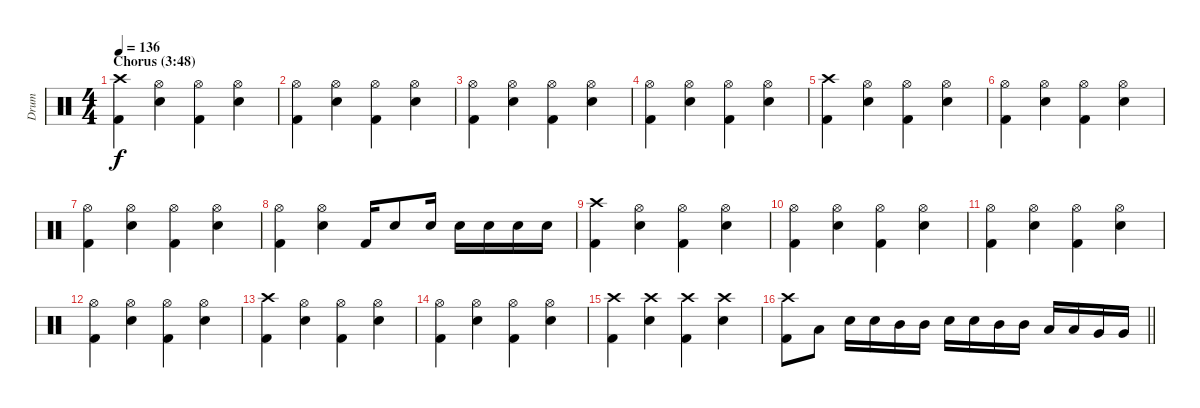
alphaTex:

\track ("Drum" "Drum") {instrument percussion}
\staff {score}
\articulation defaults
\ts (4 4)
\section ("" "Chorus (3:48)")
\tempo 136
\clef neutral
\ks c
("Crash high (hit)" "Kick (hit) 2").4{dy f} ("Hi-Hat (open)" "Snare (hit) 2").4 ("Hi-Hat (open)" "Kick (hit) 2").4 ("Hi-Hat (open)" "Snare (hit) 2").4 |
("Hi-Hat (open)" "Kick (hit) 2").4 ("Hi-Hat (open)" "Snare (hit) 2").4 ("Hi-Hat (open)" "Kick (hit) 2").4 ("Hi-Hat (open)" "Snare (hit) 2").4 |
("Hi-Hat (open)" "Kick (hit) 2").4 ("Hi-Hat (open)" "Snare (hit) 2").4 ("Hi-Hat (open)" "Kick (hit) 2").4 ("Hi-Hat (open)" "Snare (hit) 2").4 |
("Hi-Hat (open)" "Kick (hit) 2").4 ("Hi-Hat (open)" "Snare (hit) 2").4 ("Hi-Hat (open)" "Kick (hit) 2").4 ("Hi-Hat (open)" "Snare (hit) 2").4 |
("Crash high (hit)" "Kick (hit) 2").4 ("Hi-Hat (open)" "Snare (hit) 2").4 ("Hi-Hat (open)" "Kick (hit) 2").4 ("Hi-Hat (open)" "Snare (hit) 2").4 |
("Hi-Hat (open)" "Kick (hit) 2").4 ("Hi-Hat (open)" "Snare (hit) 2").4 ("Hi-Hat (open)" "Kick (hit) 2").4 ("Hi-Hat (open)" "Snare (hit) 2").4 |
("Hi-Hat (open)" "Kick (hit) 2").4 ("Hi-Hat (open)" "Snare (hit) 2").4 ("Hi-Hat (open)" "Kick (hit) 2").4 ("Hi-Hat (open)" "Snare (hit) 2").4 |
("Hi-Hat (open)" "Kick (hit) 2").4 ("Hi-Hat (open)" "Snare (hit) 2").4 "Kick (hit) 2".16 "Snare (hit) 2".8 "Snare (hit) 2".16 "Snare (hit) 2".16 "Snare (hit) 2".16 "Snare (hit) 2".16 "Snare (hit) 2".16 |
("Crash high (hit)" "Kick (hit) 2").4 ("Hi-Hat (open)" "Snare (hit) 2").4 ("Hi-Hat (open)" "Kick (hit) 2").4 ("Hi-Hat (open)" "Snare (hit) 2").4 |
("Hi-Hat (open)" "Kick (hit) 2").4 ("Hi-Hat (open)" "Snare (hit) 2").4 ("Hi-Hat (open)" "Kick (hit) 2").4 ("Hi-Hat (open)" "Snare (hit) 2").4 |
("Hi-Hat (open)" "Kick (hit) 2").4 ("Hi-Hat (open)" "Snare (hit) 2").4 ("Hi-Hat (open)" "Kick (hit) 2").4 ("Hi-Hat (open)" "Snare (hit) 2").4 |
("Hi-Hat (open)" "Kick (hit) 2").4 ("Hi-Hat (open)" "Snare (hit) 2").4 ("Hi-Hat (open)" "Kick (hit) 2").4 ("Hi-Hat (open)" "Snare (hit) 2").4 |
("Crash high (hit)" "Kick (hit) 2").4 ("Hi-Hat (open)" "Snare (hit) 2").4 ("Hi-Hat (open)" "Kick (hit) 2").4 ("Hi-Hat (open)" "Snare (hit) 2").4 |
("Hi-Hat (open)" "Kick (hit) 2").4 ("Hi-Hat (open)" "Snare (hit) 2").4 ("Hi-Hat (open)" "Kick (hit) 2").4 ("Hi-Hat (open)" "Snare (hit) 2").4 |
("Crash high (hit)" "Kick (hit) 2").4 ("Crash high (hit)" "Snare (hit) 2").4 ("Crash high (hit)" "Kick (hit) 2").4 ("Crash high (hit)" "Snare (hit) 2").4 |
\barLineRight lightlight
("Crash high (hit)" "Kick (hit) 2").8 "Low Tom (hit)".8 "Snare (hit) 2".16 "Snare (hit) 2".16 "Mid Tom (hit)".16 "Mid Tom (hit)".16 "Snare (hit) 2".16 "Snare (hit) 2".16 "Mid Tom (hit)".16 "Mid Tom (hit)".16 "Low Tom (hit)".16 "Low Tom (hit)".16 "Very Low Tom (hit)".16 "Very Low Tom (hit)".16
